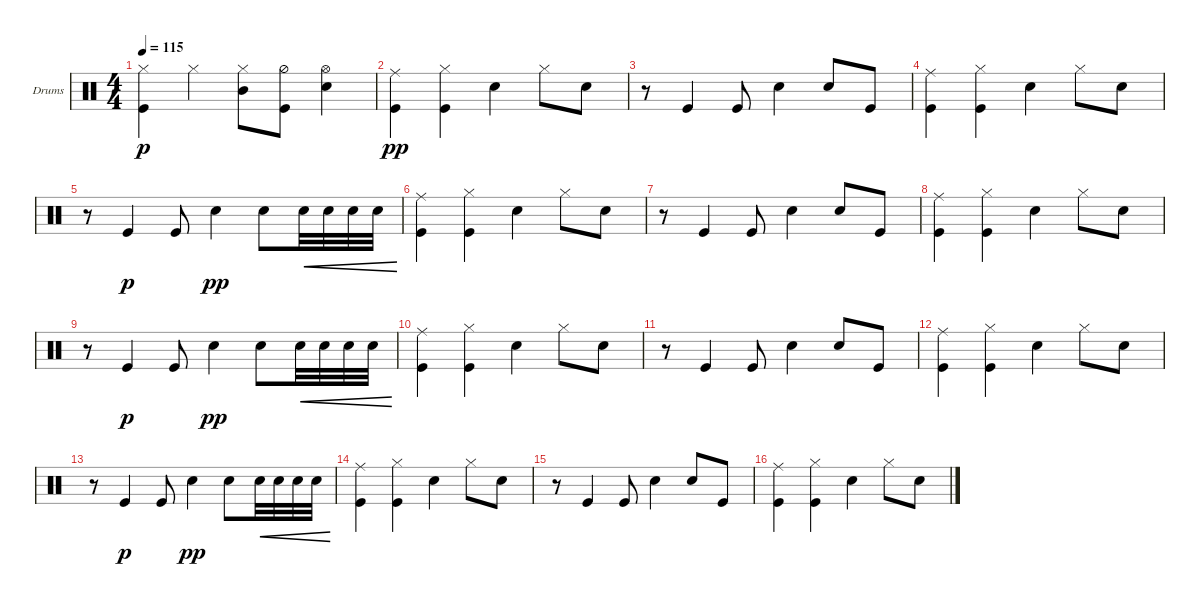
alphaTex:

\defaultSystemsLayout 4
\bracketExtendMode groupsimilarinstruments
\firstSystemTrackNameOrientation horizontal
\otherSystemsTrackNameOrientation horizontal
\track ("Drumkit" "Drums") {instrument percussion}
\staff {score}
\articulation defaults
\ts (4 4)
\tempo 115
\clef neutral
\ks c
("Kick (hit)" "Hi-Hat (closed)").4{dy p} "Hi-Hat (closed)".4 ("Mid Tom (hit)" "Hi-Hat (closed)").8 ("Kick (hit)" "Hi-Hat (half)").8 ("Snare (hit) 2" "Hi-Hat (open)").4 |
("Kick (hit)" "Ride (middle)").4{dy pp} ("Kick (hit)" "Hi-Hat (closed)").4 "Snare (hit) 2".4 "Hi-Hat (closed)".8 "Snare (hit) 2".8 |
r.8 "Kick (hit)".4 "Kick (hit)".8 "Snare (hit) 2".4 "Snare (hit) 2".8 "Kick (hit)".8 |
("Kick (hit)" "Ride (middle)").4 ("Kick (hit)" "Hi-Hat (closed)").4 "Snare (hit) 2".4 "Hi-Hat (closed)".8 "Snare (hit) 2".8 |
r.8 "Kick (hit)".4{dy p} "Kick (hit)".8 "Snare (hit) 2".4{dy pp} "Snare (hit) 2".8 "Snare (hit) 2".32{cre} "Snare (hit) 2".32{cre} "Snare (hit) 2".32{cre} "Snare (hit) 2".32{cre} |
("Kick (hit)" "Ride (middle)").4 ("Kick (hit)" "Hi-Hat (closed)").4 "Snare (hit) 2".4 "Hi-Hat (closed)".8 "Snare (hit) 2".8 |
r.8 "Kick (hit)".4 "Kick (hit)".8 "Snare (hit) 2".4 "Snare (hit) 2".8 "Kick (hit)".8 |
("Kick (hit)" "Ride (middle)").4 ("Kick (hit)" "Hi-Hat (closed)").4 "Snare (hit) 2".4 "Hi-Hat (closed)".8 "Snare (hit) 2".8 |
r.8 "Kick (hit)".4{dy p} "Kick (hit)".8 "Snare (hit) 2".4{dy pp} "Snare (hit) 2".8 "Snare (hit) 2".32{cre} "Snare (hit) 2".32{cre} "Snare (hit) 2".32{cre} "Snare (hit) 2".32{cre} |
("Kick (hit)" "Ride (middle)").4 ("Kick (hit)" "Hi-Hat (closed)").4 "Snare (hit) 2".4 "Hi-Hat (closed)".8 "Snare (hit) 2".8 |
r.8 "Kick (hit)".4 "Kick (hit)".8 "Snare (hit) 2".4 "Snare (hit) 2".8 "Kick (hit)".8 |
("Kick (hit)" "Ride (middle)").4 ("Kick (hit)" "Hi-Hat (closed)").4 "Snare (hit) 2".4 "Hi-Hat (closed)".8 "Snare (hit) 2".8 |
r.8 "Kick (hit)".4{dy p} "Kick (hit)".8 "Snare (hit) 2".4{dy pp} "Snare (hit) 2".8 "Snare (hit) 2".32{cre} "Snare (hit) 2".32{cre} "Snare (hit) 2".32{cre} "Snare (hit) 2".32{cre} |
("Kick (hit)" "Ride (middle)").4 ("Kick (hit)" "Hi-Hat (closed)").4 "Snare (hit) 2".4 "Hi-Hat (closed)".8 "Snare (hit) 2".8 |
r.8 "Kick (hit)".4 "Kick (hit)".8 "Snare (hit) 2".4 "Snare (hit) 2".8 "Kick (hit)".8 |
("Kick (hit)" "Ride (middle)").4 ("Kick (hit)" "Hi-Hat (closed)").4 "Snare (hit) 2".4 "Hi-Hat (closed)".8 "Snare (hit) 2".8
